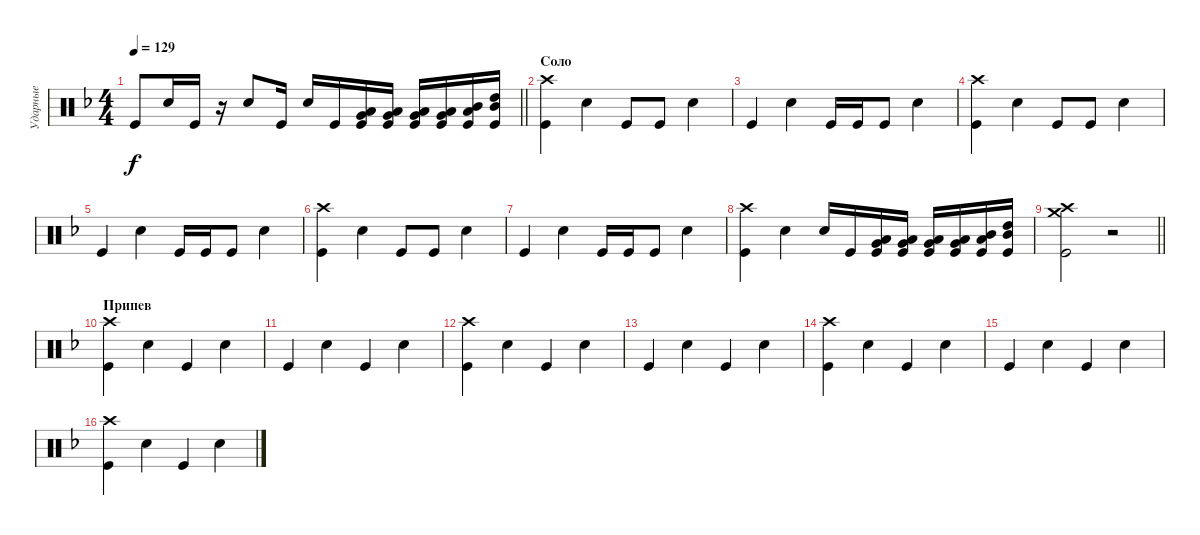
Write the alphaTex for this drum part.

\track ("Ударные" "Ударные") {instrument percussion}
\staff {score}
\articulation defaults
\ts (4 4)
\tempo 129
\clef neutral
\barLineRight lightlight
\ks dminor "Kick (hit)".8{dy f} "Snare (hit) 2".16 "Kick (hit)".16
r.16 "Snare (hit) 2".8 "Kick (hit)".16 "Snare (hit) 2".16 "Kick (hit)".16 ("Low Floor Tom (hit)" "Very Low Tom (hit)" "Kick (hit)").16 ("Low Floor Tom (hit)" "Very Low Tom (hit)" "Kick (hit)").16 ("Very Low Tom (hit)" "Low Tom (hit)" "Kick (hit)").16 ("Very Low Tom (hit)" "Low Tom (hit)" "Kick (hit)").16 ("Low Tom (hit)" "Mid Tom (hit)" "Kick (hit)").16 ("Mid Tom (hit)" "High Tom (hit)" "Kick (hit)").16 |
\section ("" "Соло")
("Kick (hit)" "Crash high (hit)").4 "Snare (hit) 2".4 "Kick (hit)".8 "Kick (hit)".8 "Snare (hit) 2".4 |
"Kick (hit)".4 "Snare (hit) 2".4 "Kick (hit)".16 "Kick (hit)".16 "Kick (hit)".8 "Snare (hit) 2".4 |
("Kick (hit)" "Crash high (hit)").4 "Snare (hit) 2".4 "Kick (hit)".8 "Kick (hit)".8 "Snare (hit) 2".4 |
"Kick (hit)".4 "Snare (hit) 2".4 "Kick (hit)".16 "Kick (hit)".16 "Kick (hit)".8 "Snare (hit) 2".4 |
("Kick (hit)" "Crash high (hit)").4 "Snare (hit) 2".4 "Kick (hit)".8 "Kick (hit)".8 "Snare (hit) 2".4 |
"Kick (hit)".4 "Snare (hit) 2".4 "Kick (hit)".16 "Kick (hit)".16 "Kick (hit)".8 "Snare (hit) 2".4 |
("Kick (hit)" "Crash high (hit)").4 "Snare (hit) 2".4 "Snare (hit) 2".16 "Kick (hit)".16 ("Low Floor Tom (hit)" "Very Low Tom (hit)" "Kick (hit)").16 ("Low Floor Tom (hit)" "Very Low Tom (hit)" "Kick (hit)").16 ("Very Low Tom (hit)" "Low Tom (hit)" "Kick (hit)").16 ("Very Low Tom (hit)" "Low Tom (hit)" "Kick (hit)").16 ("Low Tom (hit)" "Mid Tom (hit)" "Kick (hit)").16 ("Mid Tom (hit)" "High Tom (hit)" "Kick (hit)").16 |
\barLineRight lightlight
("Crash high (hit)" "Crash medium (hit)" "Kick (hit)").2 r.2 |
\section ("" "Припев")
("Crash high (hit)" "Kick (hit)").4 "Snare (hit) 2".4 "Kick (hit)".4 "Snare (hit) 2".4 |
"Kick (hit)".4 "Snare (hit) 2".4 "Kick (hit)".4 "Snare (hit) 2".4 |
("Crash high (hit)" "Kick (hit)").4 "Snare (hit) 2".4 "Kick (hit)".4 "Snare (hit) 2".4 |
"Kick (hit)".4 "Snare (hit) 2".4 "Kick (hit)".4 "Snare (hit) 2".4 |
("Crash high (hit)" "Kick (hit)").4 "Snare (hit) 2".4 "Kick (hit)".4 "Snare (hit) 2".4 |
"Kick (hit)".4 "Snare (hit) 2".4 "Kick (hit)".4 "Snare (hit) 2".4 |
("Crash high (hit)" "Kick (hit)").4 "Snare (hit) 2".4 "Kick (hit)".4 "Snare (hit) 2".4
